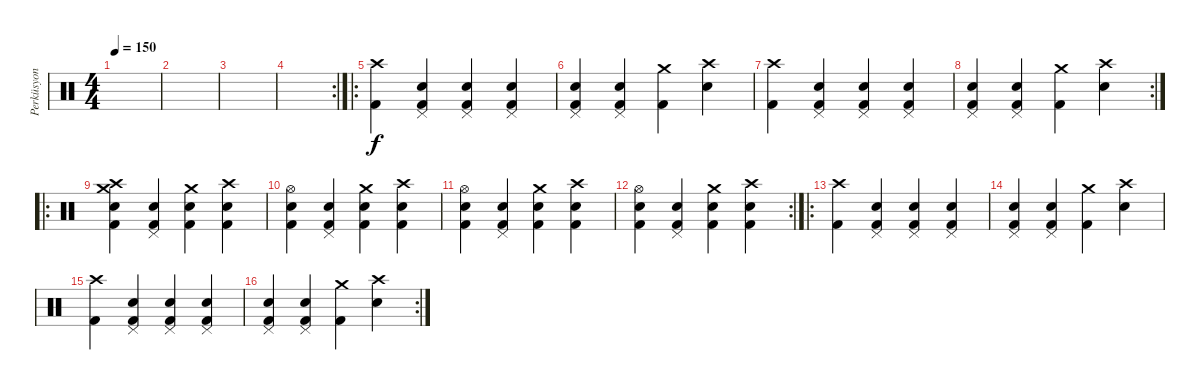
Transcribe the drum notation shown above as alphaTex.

\track ("Perküsyon" "Perküsyon") {instrument percussion}
\staff {score}
\articulation defaults
\ts (4 4)
\tempo 150
\clef neutral
\ks c
|
|
|
\rc 2
|
\ro
("Crash high (hit)" "Kick (hit) 2").4 ("Pedal Hi-Hat (hit)" "Kick (hit) 2" "Electric Snare (hit)").4 ("Pedal Hi-Hat (hit)" "Kick (hit) 2" "Snare (hit) 2").4 ("Pedal Hi-Hat (hit)" "Kick (hit) 2" "Electric Snare (hit)").4 |
("Pedal Hi-Hat (hit)" "Kick (hit) 2" "Electric Snare (hit)").4 ("Pedal Hi-Hat (hit)" "Kick (hit) 2" "Snare (hit) 2").4 ("Crash medium (hit)" "Kick (hit) 2").4 ("Crash high (hit)" "Snare (hit) 2").4 |
("Crash high (hit)" "Kick (hit) 2").4 ("Pedal Hi-Hat (hit)" "Kick (hit) 2" "Electric Snare (hit)").4 ("Pedal Hi-Hat (hit)" "Kick (hit) 2" "Snare (hit) 2").4 ("Pedal Hi-Hat (hit)" "Kick (hit) 2" "Electric Snare (hit)").4 |
\rc 2
("Pedal Hi-Hat (hit)" "Kick (hit) 2" "Electric Snare (hit)").4 ("Pedal Hi-Hat (hit)" "Kick (hit) 2" "Snare (hit) 2").4 ("Crash medium (hit)" "Kick (hit) 2").4 ("Crash high (hit)" "Snare (hit) 2").4 |
\ro
("Crash medium (hit)" "Crash high (hit)" "Kick (hit) 2" "Electric Snare (hit)").4 ("Pedal Hi-Hat (hit)" "Kick (hit) 2" "Electric Snare (hit)").4 ("Crash medium (hit)" "Kick (hit) 2" "Electric Snare (hit)").4 ("Crash high (hit)" "Kick (hit) 2" "Electric Snare (hit)").4 |
("Hi-Hat (open)" "Kick (hit) 2" "Electric Snare (hit)").4 ("Pedal Hi-Hat (hit)" "Kick (hit) 2" "Electric Snare (hit)").4 ("Crash medium (hit)" "Kick (hit) 2" "Electric Snare (hit)").4 ("Crash high (hit)" "Kick (hit) 2" "Electric Snare (hit)").4 |
("Hi-Hat (open)" "Kick (hit) 2" "Electric Snare (hit)").4 ("Pedal Hi-Hat (hit)" "Kick (hit) 2" "Electric Snare (hit)").4 ("Crash medium (hit)" "Kick (hit) 2" "Electric Snare (hit)").4 ("Crash high (hit)" "Kick (hit) 2" "Electric Snare (hit)").4 |
\rc 2
("Hi-Hat (open)" "Kick (hit) 2" "Electric Snare (hit)").4 ("Pedal Hi-Hat (hit)" "Kick (hit) 2" "Electric Snare (hit)").4 ("Crash medium (hit)" "Kick (hit) 2" "Electric Snare (hit)").4 ("Crash high (hit)" "Kick (hit) 2" "Electric Snare (hit)").4 |
\ro
("Crash high (hit)" "Kick (hit) 2").4 ("Pedal Hi-Hat (hit)" "Kick (hit) 2" "Electric Snare (hit)").4 ("Pedal Hi-Hat (hit)" "Kick (hit) 2" "Snare (hit) 2").4 ("Pedal Hi-Hat (hit)" "Kick (hit) 2" "Electric Snare (hit)").4 |
("Pedal Hi-Hat (hit)" "Kick (hit) 2" "Electric Snare (hit)").4 ("Pedal Hi-Hat (hit)" "Kick (hit) 2" "Snare (hit) 2").4 ("Crash medium (hit)" "Kick (hit) 2").4 ("Crash high (hit)" "Snare (hit) 2").4 |
("Crash high (hit)" "Kick (hit) 2").4 ("Pedal Hi-Hat (hit)" "Kick (hit) 2" "Electric Snare (hit)").4 ("Pedal Hi-Hat (hit)" "Kick (hit) 2" "Snare (hit) 2").4 ("Pedal Hi-Hat (hit)" "Kick (hit) 2" "Electric Snare (hit)").4 |
\rc 2
("Pedal Hi-Hat (hit)" "Kick (hit) 2" "Electric Snare (hit)").4 ("Pedal Hi-Hat (hit)" "Kick (hit) 2" "Snare (hit) 2").4 ("Crash medium (hit)" "Kick (hit) 2").4 ("Crash high (hit)" "Snare (hit) 2").4
